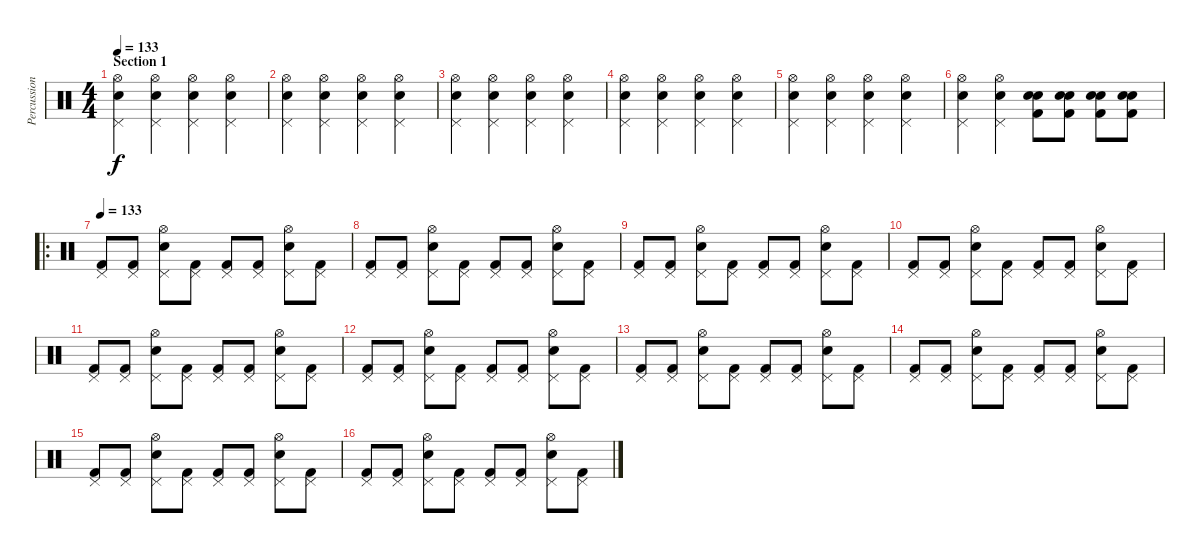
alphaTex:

\track ("Percussions" "Percussion") {instrument percussion}
\staff {score}
\articulation defaults
\ts (4 4)
\section ("" "Section 1")
\tempo 133
\tempo 135
\tempo 133
\clef neutral
\ks c
("Snare (hit) 2" "Pedal Hi-Hat (hit)" "Hi-Hat (open)").4{dy f} ("Snare (hit) 2" "Pedal Hi-Hat (hit)" "Hi-Hat (open)").4 ("Snare (hit) 2" "Pedal Hi-Hat (hit)" "Hi-Hat (open)").4 ("Snare (hit) 2" "Pedal Hi-Hat (hit)" "Hi-Hat (open)").4 |
("Snare (hit) 2" "Pedal Hi-Hat (hit)" "Hi-Hat (open)").4 ("Snare (hit) 2" "Pedal Hi-Hat (hit)" "Hi-Hat (open)").4 ("Snare (hit) 2" "Pedal Hi-Hat (hit)" "Hi-Hat (open)").4 ("Snare (hit) 2" "Pedal Hi-Hat (hit)" "Hi-Hat (open)").4 |
("Snare (hit) 2" "Pedal Hi-Hat (hit)" "Hi-Hat (open)").4 ("Snare (hit) 2" "Pedal Hi-Hat (hit)" "Hi-Hat (open)").4 ("Snare (hit) 2" "Pedal Hi-Hat (hit)" "Hi-Hat (open)").4 ("Snare (hit) 2" "Pedal Hi-Hat (hit)" "Hi-Hat (open)").4 |
("Snare (hit) 2" "Pedal Hi-Hat (hit)" "Hi-Hat (open)").4 ("Snare (hit) 2" "Pedal Hi-Hat (hit)" "Hi-Hat (open)").4 ("Snare (hit) 2" "Pedal Hi-Hat (hit)" "Hi-Hat (open)").4 ("Snare (hit) 2" "Pedal Hi-Hat (hit)" "Hi-Hat (open)").4 |
("Snare (hit) 2" "Pedal Hi-Hat (hit)" "Hi-Hat (open)").4 ("Snare (hit) 2" "Pedal Hi-Hat (hit)" "Hi-Hat (open)").4 ("Snare (hit) 2" "Pedal Hi-Hat (hit)" "Hi-Hat (open)").4 ("Snare (hit) 2" "Pedal Hi-Hat (hit)" "Hi-Hat (open)").4 |
("Snare (hit) 2" "Pedal Hi-Hat (hit)" "Hi-Hat (open)").4 ("Snare (hit) 2" "Pedal Hi-Hat (hit)" "Hi-Hat (open)").4 ("Kick (hit) 2" "Electric Snare (hit)" "Snare (hit) 2").8 ("Kick (hit) 2" "Electric Snare (hit)" "Snare (hit) 2").8 ("Kick (hit) 2" "Electric Snare (hit)" "Snare (hit) 2").8 ("Kick (hit) 2" "Electric Snare (hit)" "Snare (hit) 2").8 |
\ro
\tempo 133
("Kick (hit) 2" "Pedal Hi-Hat (hit)").8 ("Kick (hit) 2" "Pedal Hi-Hat (hit)").8 ("Snare (hit) 2" "Pedal Hi-Hat (hit)" "Hi-Hat (open)").8 ("Kick (hit) 2" "Pedal Hi-Hat (hit)").8 ("Kick (hit) 2" "Pedal Hi-Hat (hit)").8 ("Kick (hit) 2" "Pedal Hi-Hat (hit)").8 ("Snare (hit) 2" "Pedal Hi-Hat (hit)" "Hi-Hat (open)").8 ("Kick (hit) 2" "Pedal Hi-Hat (hit)").8 |
("Kick (hit) 2" "Pedal Hi-Hat (hit)").8 ("Kick (hit) 2" "Pedal Hi-Hat (hit)").8 ("Snare (hit) 2" "Pedal Hi-Hat (hit)" "Hi-Hat (open)").8 ("Kick (hit) 2" "Pedal Hi-Hat (hit)").8 ("Kick (hit) 2" "Pedal Hi-Hat (hit)").8 ("Kick (hit) 2" "Pedal Hi-Hat (hit)").8 ("Snare (hit) 2" "Pedal Hi-Hat (hit)" "Hi-Hat (open)").8 ("Kick (hit) 2" "Pedal Hi-Hat (hit)").8 |
("Kick (hit) 2" "Pedal Hi-Hat (hit)").8 ("Kick (hit) 2" "Pedal Hi-Hat (hit)").8 ("Snare (hit) 2" "Pedal Hi-Hat (hit)" "Hi-Hat (open)").8 ("Kick (hit) 2" "Pedal Hi-Hat (hit)").8 ("Kick (hit) 2" "Pedal Hi-Hat (hit)").8 ("Kick (hit) 2" "Pedal Hi-Hat (hit)").8 ("Snare (hit) 2" "Pedal Hi-Hat (hit)" "Hi-Hat (open)").8 ("Kick (hit) 2" "Pedal Hi-Hat (hit)").8 |
("Kick (hit) 2" "Pedal Hi-Hat (hit)").8 ("Kick (hit) 2" "Pedal Hi-Hat (hit)").8 ("Snare (hit) 2" "Pedal Hi-Hat (hit)" "Hi-Hat (open)").8 ("Kick (hit) 2" "Pedal Hi-Hat (hit)").8 ("Kick (hit) 2" "Pedal Hi-Hat (hit)").8 ("Kick (hit) 2" "Pedal Hi-Hat (hit)").8 ("Snare (hit) 2" "Pedal Hi-Hat (hit)" "Hi-Hat (open)").8 ("Kick (hit) 2" "Pedal Hi-Hat (hit)").8 |
("Kick (hit) 2" "Pedal Hi-Hat (hit)").8 ("Kick (hit) 2" "Pedal Hi-Hat (hit)").8 ("Snare (hit) 2" "Pedal Hi-Hat (hit)" "Hi-Hat (open)").8 ("Kick (hit) 2" "Pedal Hi-Hat (hit)").8 ("Kick (hit) 2" "Pedal Hi-Hat (hit)").8 ("Kick (hit) 2" "Pedal Hi-Hat (hit)").8 ("Snare (hit) 2" "Pedal Hi-Hat (hit)" "Hi-Hat (open)").8 ("Kick (hit) 2" "Pedal Hi-Hat (hit)").8 |
("Kick (hit) 2" "Pedal Hi-Hat (hit)").8 ("Kick (hit) 2" "Pedal Hi-Hat (hit)").8 ("Snare (hit) 2" "Pedal Hi-Hat (hit)" "Hi-Hat (open)").8 ("Kick (hit) 2" "Pedal Hi-Hat (hit)").8 ("Kick (hit) 2" "Pedal Hi-Hat (hit)").8 ("Kick (hit) 2" "Pedal Hi-Hat (hit)").8 ("Snare (hit) 2" "Pedal Hi-Hat (hit)" "Hi-Hat (open)").8 ("Kick (hit) 2" "Pedal Hi-Hat (hit)").8 |
("Kick (hit) 2" "Pedal Hi-Hat (hit)").8 ("Kick (hit) 2" "Pedal Hi-Hat (hit)").8 ("Snare (hit) 2" "Pedal Hi-Hat (hit)" "Hi-Hat (open)").8 ("Kick (hit) 2" "Pedal Hi-Hat (hit)").8 ("Kick (hit) 2" "Pedal Hi-Hat (hit)").8 ("Kick (hit) 2" "Pedal Hi-Hat (hit)").8 ("Snare (hit) 2" "Pedal Hi-Hat (hit)" "Hi-Hat (open)").8 ("Kick (hit) 2" "Pedal Hi-Hat (hit)").8 |
("Kick (hit) 2" "Pedal Hi-Hat (hit)").8 ("Kick (hit) 2" "Pedal Hi-Hat (hit)").8 ("Snare (hit) 2" "Pedal Hi-Hat (hit)" "Hi-Hat (open)").8 ("Kick (hit) 2" "Pedal Hi-Hat (hit)").8 ("Kick (hit) 2" "Pedal Hi-Hat (hit)").8 ("Kick (hit) 2" "Pedal Hi-Hat (hit)").8 ("Snare (hit) 2" "Pedal Hi-Hat (hit)" "Hi-Hat (open)").8 ("Kick (hit) 2" "Pedal Hi-Hat (hit)").8 |
("Kick (hit) 2" "Pedal Hi-Hat (hit)").8 ("Kick (hit) 2" "Pedal Hi-Hat (hit)").8 ("Snare (hit) 2" "Pedal Hi-Hat (hit)" "Hi-Hat (open)").8 ("Kick (hit) 2" "Pedal Hi-Hat (hit)").8 ("Kick (hit) 2" "Pedal Hi-Hat (hit)").8 ("Kick (hit) 2" "Pedal Hi-Hat (hit)").8 ("Snare (hit) 2" "Pedal Hi-Hat (hit)" "Hi-Hat (open)").8 ("Kick (hit) 2" "Pedal Hi-Hat (hit)").8 |
("Kick (hit) 2" "Pedal Hi-Hat (hit)").8 ("Kick (hit) 2" "Pedal Hi-Hat (hit)").8 ("Snare (hit) 2" "Pedal Hi-Hat (hit)" "Hi-Hat (open)").8 ("Kick (hit) 2" "Pedal Hi-Hat (hit)").8 ("Kick (hit) 2" "Pedal Hi-Hat (hit)").8 ("Kick (hit) 2" "Pedal Hi-Hat (hit)").8 ("Snare (hit) 2" "Pedal Hi-Hat (hit)" "Hi-Hat (open)").8 ("Kick (hit) 2" "Pedal Hi-Hat (hit)").8
